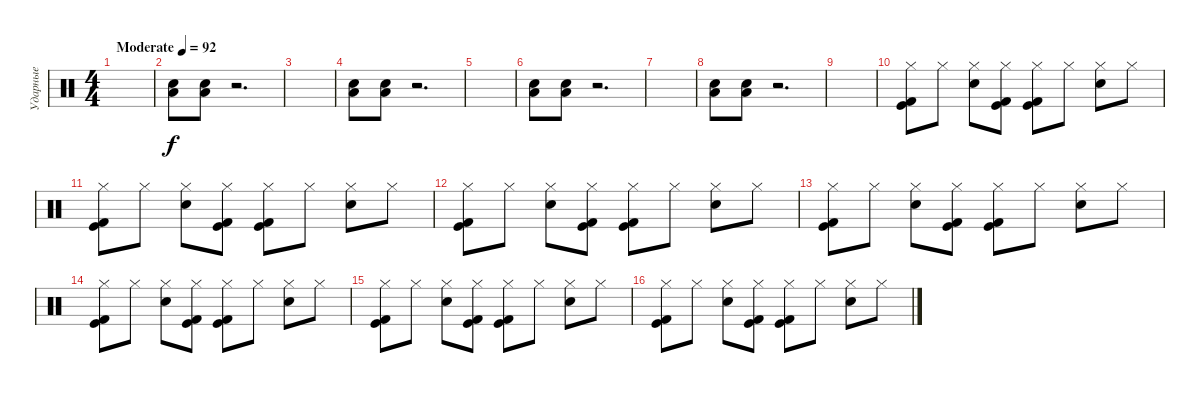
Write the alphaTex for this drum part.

\track ("Ударные" "Ударные") {instrument percussion}
\staff {score}
\articulation defaults
\ts (4 4)
\tempo (92 "Moderate")
\clef neutral
\ks c
|
("Electric Snare (hit)" "Low Floor Tom (hit)").8 ("Electric Snare (hit)" "Low Floor Tom (hit)").8 r.2{d} |
|
("Electric Snare (hit)" "Low Floor Tom (hit)").8 ("Electric Snare (hit)" "Low Floor Tom (hit)").8 r.2{d} |
|
("Electric Snare (hit)" "Low Floor Tom (hit)").8 ("Electric Snare (hit)" "Low Floor Tom (hit)").8 r.2{d} |
|
("Electric Snare (hit)" "Low Floor Tom (hit)").8 ("Electric Snare (hit)" "Low Floor Tom (hit)").8 r.2{d} |
|
("Hi-Hat (closed)" "Kick (hit)" "Kick (hit) 2").8 "Hi-Hat (closed)".8 ("Hi-Hat (closed)" "Electric Snare (hit)").8 ("Hi-Hat (closed)" "Kick (hit)" "Kick (hit) 2").8 ("Hi-Hat (closed)" "Kick (hit)" "Kick (hit) 2").8 "Hi-Hat (closed)".8 ("Hi-Hat (closed)" "Electric Snare (hit)").8 "Hi-Hat (closed)".8 |
("Hi-Hat (closed)" "Kick (hit)" "Kick (hit) 2").8 "Hi-Hat (closed)".8 ("Hi-Hat (closed)" "Electric Snare (hit)").8 ("Hi-Hat (closed)" "Kick (hit)" "Kick (hit) 2").8 ("Hi-Hat (closed)" "Kick (hit)" "Kick (hit) 2").8 "Hi-Hat (closed)".8 ("Hi-Hat (closed)" "Electric Snare (hit)").8 "Hi-Hat (closed)".8 |
("Hi-Hat (closed)" "Kick (hit)" "Kick (hit) 2").8 "Hi-Hat (closed)".8 ("Hi-Hat (closed)" "Electric Snare (hit)").8 ("Hi-Hat (closed)" "Kick (hit)" "Kick (hit) 2").8 ("Hi-Hat (closed)" "Kick (hit)" "Kick (hit) 2").8 "Hi-Hat (closed)".8 ("Hi-Hat (closed)" "Electric Snare (hit)").8 "Hi-Hat (closed)".8 |
("Hi-Hat (closed)" "Kick (hit)" "Kick (hit) 2").8 "Hi-Hat (closed)".8 ("Hi-Hat (closed)" "Electric Snare (hit)").8 ("Hi-Hat (closed)" "Kick (hit)" "Kick (hit) 2").8 ("Hi-Hat (closed)" "Kick (hit)" "Kick (hit) 2").8 "Hi-Hat (closed)".8 ("Hi-Hat (closed)" "Electric Snare (hit)").8 "Hi-Hat (closed)".8 |
("Hi-Hat (closed)" "Kick (hit)" "Kick (hit) 2").8 "Hi-Hat (closed)".8 ("Hi-Hat (closed)" "Electric Snare (hit)").8 ("Hi-Hat (closed)" "Kick (hit)" "Kick (hit) 2").8 ("Hi-Hat (closed)" "Kick (hit)" "Kick (hit) 2").8 "Hi-Hat (closed)".8 ("Hi-Hat (closed)" "Electric Snare (hit)").8 "Hi-Hat (closed)".8 |
("Hi-Hat (closed)" "Kick (hit)" "Kick (hit) 2").8 "Hi-Hat (closed)".8 ("Hi-Hat (closed)" "Electric Snare (hit)").8 ("Hi-Hat (closed)" "Kick (hit)" "Kick (hit) 2").8 ("Hi-Hat (closed)" "Kick (hit)" "Kick (hit) 2").8 "Hi-Hat (closed)".8 ("Hi-Hat (closed)" "Electric Snare (hit)").8 "Hi-Hat (closed)".8 |
("Hi-Hat (closed)" "Kick (hit)" "Kick (hit) 2").8 "Hi-Hat (closed)".8 ("Hi-Hat (closed)" "Electric Snare (hit)").8 ("Hi-Hat (closed)" "Kick (hit)" "Kick (hit) 2").8 ("Hi-Hat (closed)" "Kick (hit)" "Kick (hit) 2").8 "Hi-Hat (closed)".8 ("Hi-Hat (closed)" "Electric Snare (hit)").8 "Hi-Hat (closed)".8
